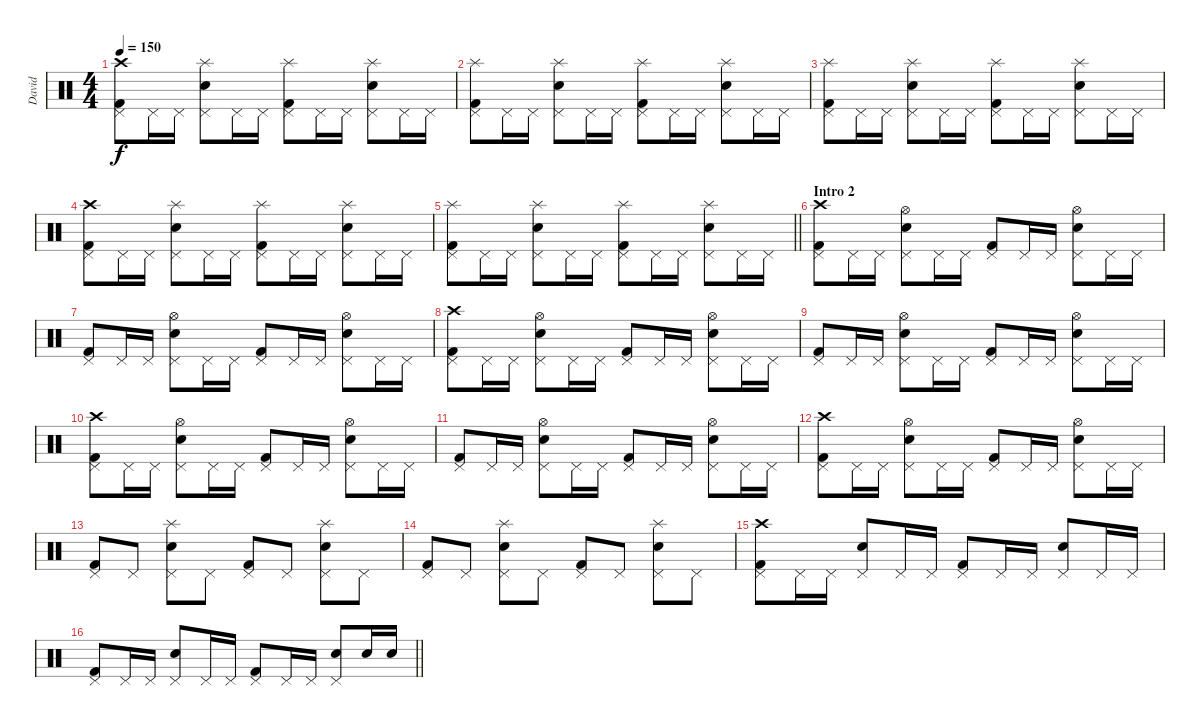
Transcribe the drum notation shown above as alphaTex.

\track ("David" "David") {instrument percussion}
\staff {score}
\articulation defaults
\ts (4 4)
\tempo 150
\clef neutral
\ks c
("Kick (hit) 2" "Pedal Hi-Hat (hit)" "Crash high (hit)").8{dy f} "Pedal Hi-Hat (hit)".16 "Pedal Hi-Hat (hit)".16 ("Snare (hit) 2" "Pedal Hi-Hat (hit)" "Splash (hit)").8 "Pedal Hi-Hat (hit)".16 "Pedal Hi-Hat (hit)".16 ("Kick (hit) 2" "Pedal Hi-Hat (hit)" "Splash (hit)").8 "Pedal Hi-Hat (hit)".16 "Pedal Hi-Hat (hit)".16 ("Snare (hit) 2" "Pedal Hi-Hat (hit)" "Splash (hit)").8 "Pedal Hi-Hat (hit)".16 "Pedal Hi-Hat (hit)".16 |
("Kick (hit) 2" "Pedal Hi-Hat (hit)" "Splash (hit)").8 "Pedal Hi-Hat (hit)".16 "Pedal Hi-Hat (hit)".16 ("Snare (hit) 2" "Pedal Hi-Hat (hit)" "Splash (hit)").8 "Pedal Hi-Hat (hit)".16 "Pedal Hi-Hat (hit)".16 ("Kick (hit) 2" "Pedal Hi-Hat (hit)" "Splash (hit)").8 "Pedal Hi-Hat (hit)".16 "Pedal Hi-Hat (hit)".16 ("Snare (hit) 2" "Pedal Hi-Hat (hit)" "Splash (hit)").8 "Pedal Hi-Hat (hit)".16 "Pedal Hi-Hat (hit)".16 |
("Kick (hit) 2" "Pedal Hi-Hat (hit)" "Splash (hit)").8 "Pedal Hi-Hat (hit)".16 "Pedal Hi-Hat (hit)".16 ("Snare (hit) 2" "Pedal Hi-Hat (hit)" "Splash (hit)").8 "Pedal Hi-Hat (hit)".16 "Pedal Hi-Hat (hit)".16 ("Kick (hit) 2" "Pedal Hi-Hat (hit)" "Splash (hit)").8 "Pedal Hi-Hat (hit)".16 "Pedal Hi-Hat (hit)".16 ("Snare (hit) 2" "Pedal Hi-Hat (hit)" "Splash (hit)").8 "Pedal Hi-Hat (hit)".16 "Pedal Hi-Hat (hit)".16 |
("Kick (hit) 2" "Pedal Hi-Hat (hit)" "Crash high (hit)").8 "Pedal Hi-Hat (hit)".16 "Pedal Hi-Hat (hit)".16 ("Snare (hit) 2" "Pedal Hi-Hat (hit)" "Splash (hit)").8 "Pedal Hi-Hat (hit)".16 "Pedal Hi-Hat (hit)".16 ("Kick (hit) 2" "Pedal Hi-Hat (hit)" "Splash (hit)").8 "Pedal Hi-Hat (hit)".16 "Pedal Hi-Hat (hit)".16 ("Snare (hit) 2" "Pedal Hi-Hat (hit)" "Splash (hit)").8 "Pedal Hi-Hat (hit)".16 "Pedal Hi-Hat (hit)".16 |
\barLineRight lightlight
("Kick (hit) 2" "Pedal Hi-Hat (hit)" "Splash (hit)").8 "Pedal Hi-Hat (hit)".16 "Pedal Hi-Hat (hit)".16 ("Snare (hit) 2" "Pedal Hi-Hat (hit)" "Splash (hit)").8 "Pedal Hi-Hat (hit)".16 "Pedal Hi-Hat (hit)".16 ("Kick (hit) 2" "Pedal Hi-Hat (hit)" "Splash (hit)").8 "Pedal Hi-Hat (hit)".16 "Pedal Hi-Hat (hit)".16 ("Snare (hit) 2" "Pedal Hi-Hat (hit)" "Splash (hit)").8 "Pedal Hi-Hat (hit)".16 "Pedal Hi-Hat (hit)".16 |
\section ("" "Intro 2")
("Kick (hit) 2" "Pedal Hi-Hat (hit)" "Crash high (hit)").8 "Pedal Hi-Hat (hit)".16 "Pedal Hi-Hat (hit)".16 ("Snare (hit) 2" "Pedal Hi-Hat (hit)" "Hi-Hat (open)").8 "Pedal Hi-Hat (hit)".16 "Pedal Hi-Hat (hit)".16 ("Kick (hit) 2" "Pedal Hi-Hat (hit)").8 "Pedal Hi-Hat (hit)".16 "Pedal Hi-Hat (hit)".16 ("Snare (hit) 2" "Pedal Hi-Hat (hit)" "Hi-Hat (open)").8 "Pedal Hi-Hat (hit)".16 "Pedal Hi-Hat (hit)".16 |
("Kick (hit) 2" "Pedal Hi-Hat (hit)").8 "Pedal Hi-Hat (hit)".16 "Pedal Hi-Hat (hit)".16 ("Snare (hit) 2" "Pedal Hi-Hat (hit)" "Hi-Hat (open)").8 "Pedal Hi-Hat (hit)".16 "Pedal Hi-Hat (hit)".16 ("Kick (hit) 2" "Pedal Hi-Hat (hit)").8 "Pedal Hi-Hat (hit)".16 "Pedal Hi-Hat (hit)".16 ("Snare (hit) 2" "Pedal Hi-Hat (hit)" "Hi-Hat (open)").8 "Pedal Hi-Hat (hit)".16 "Pedal Hi-Hat (hit)".16 |
("Kick (hit) 2" "Pedal Hi-Hat (hit)" "Crash high (hit)").8 "Pedal Hi-Hat (hit)".16 "Pedal Hi-Hat (hit)".16 ("Snare (hit) 2" "Pedal Hi-Hat (hit)" "Hi-Hat (open)").8 "Pedal Hi-Hat (hit)".16 "Pedal Hi-Hat (hit)".16 ("Kick (hit) 2" "Pedal Hi-Hat (hit)").8 "Pedal Hi-Hat (hit)".16 "Pedal Hi-Hat (hit)".16 ("Snare (hit) 2" "Pedal Hi-Hat (hit)" "Hi-Hat (open)").8 "Pedal Hi-Hat (hit)".16 "Pedal Hi-Hat (hit)".16 |
("Kick (hit) 2" "Pedal Hi-Hat (hit)").8 "Pedal Hi-Hat (hit)".16 "Pedal Hi-Hat (hit)".16 ("Snare (hit) 2" "Pedal Hi-Hat (hit)" "Hi-Hat (open)").8 "Pedal Hi-Hat (hit)".16 "Pedal Hi-Hat (hit)".16 ("Kick (hit) 2" "Pedal Hi-Hat (hit)").8 "Pedal Hi-Hat (hit)".16 "Pedal Hi-Hat (hit)".16 ("Snare (hit) 2" "Pedal Hi-Hat (hit)" "Hi-Hat (open)").8 "Pedal Hi-Hat (hit)".16 "Pedal Hi-Hat (hit)".16 |
("Kick (hit) 2" "Pedal Hi-Hat (hit)" "Crash high (hit)").8 "Pedal Hi-Hat (hit)".16 "Pedal Hi-Hat (hit)".16 ("Snare (hit) 2" "Pedal Hi-Hat (hit)" "Hi-Hat (open)").8 "Pedal Hi-Hat (hit)".16 "Pedal Hi-Hat (hit)".16 ("Kick (hit) 2" "Pedal Hi-Hat (hit)").8 "Pedal Hi-Hat (hit)".16 "Pedal Hi-Hat (hit)".16 ("Snare (hit) 2" "Pedal Hi-Hat (hit)" "Hi-Hat (open)").8 "Pedal Hi-Hat (hit)".16 "Pedal Hi-Hat (hit)".16 |
("Kick (hit) 2" "Pedal Hi-Hat (hit)").8 "Pedal Hi-Hat (hit)".16 "Pedal Hi-Hat (hit)".16 ("Snare (hit) 2" "Pedal Hi-Hat (hit)" "Hi-Hat (open)").8 "Pedal Hi-Hat (hit)".16 "Pedal Hi-Hat (hit)".16 ("Kick (hit) 2" "Pedal Hi-Hat (hit)").8 "Pedal Hi-Hat (hit)".16 "Pedal Hi-Hat (hit)".16 ("Snare (hit) 2" "Pedal Hi-Hat (hit)" "Hi-Hat (open)").8 "Pedal Hi-Hat (hit)".16 "Pedal Hi-Hat (hit)".16 |
("Kick (hit) 2" "Pedal Hi-Hat (hit)" "Crash high (hit)").8 "Pedal Hi-Hat (hit)".16 "Pedal Hi-Hat (hit)".16 ("Snare (hit) 2" "Pedal Hi-Hat (hit)" "Hi-Hat (open)").8 "Pedal Hi-Hat (hit)".16 "Pedal Hi-Hat (hit)".16 ("Kick (hit) 2" "Pedal Hi-Hat (hit)").8 "Pedal Hi-Hat (hit)".16 "Pedal Hi-Hat (hit)".16 ("Snare (hit) 2" "Pedal Hi-Hat (hit)" "Hi-Hat (open)").8 "Pedal Hi-Hat (hit)".16 "Pedal Hi-Hat (hit)".16 |
("Kick (hit) 2" "Pedal Hi-Hat (hit)").8 "Pedal Hi-Hat (hit)".8 ("Snare (hit) 2" "Pedal Hi-Hat (hit)" "Splash (hit)").8 "Pedal Hi-Hat (hit)".8 ("Kick (hit) 2" "Pedal Hi-Hat (hit)").8 "Pedal Hi-Hat (hit)".8 ("Snare (hit) 2" "Pedal Hi-Hat (hit)" "Splash (hit)").8 "Pedal Hi-Hat (hit)".8 |
("Kick (hit) 2" "Pedal Hi-Hat (hit)").8 "Pedal Hi-Hat (hit)".8 ("Snare (hit) 2" "Pedal Hi-Hat (hit)" "Splash (hit)").8 "Pedal Hi-Hat (hit)".8 ("Kick (hit) 2" "Pedal Hi-Hat (hit)").8 "Pedal Hi-Hat (hit)".8 ("Snare (hit) 2" "Pedal Hi-Hat (hit)" "Splash (hit)").8 "Pedal Hi-Hat (hit)".8 |
("Kick (hit) 2" "Pedal Hi-Hat (hit)" "Crash high (hit)").8 "Pedal Hi-Hat (hit)".16 "Pedal Hi-Hat (hit)".16 ("Snare (hit) 2" "Pedal Hi-Hat (hit)").8 "Pedal Hi-Hat (hit)".16 "Pedal Hi-Hat (hit)".16 ("Kick (hit) 2" "Pedal Hi-Hat (hit)").8 "Pedal Hi-Hat (hit)".16 "Pedal Hi-Hat (hit)".16 ("Snare (hit) 2" "Pedal Hi-Hat (hit)").8 "Pedal Hi-Hat (hit)".16 "Pedal Hi-Hat (hit)".16 |
\barLineRight lightlight
("Kick (hit) 2" "Pedal Hi-Hat (hit)").8 "Pedal Hi-Hat (hit)".16 "Pedal Hi-Hat (hit)".16 ("Snare (hit) 2" "Pedal Hi-Hat (hit)").8 "Pedal Hi-Hat (hit)".16 "Pedal Hi-Hat (hit)".16 ("Kick (hit) 2" "Pedal Hi-Hat (hit)").8 "Pedal Hi-Hat (hit)".16 "Pedal Hi-Hat (hit)".16 ("Snare (hit) 2" "Pedal Hi-Hat (hit)").8 "Snare (hit) 2".16 "Snare (hit) 2".16
